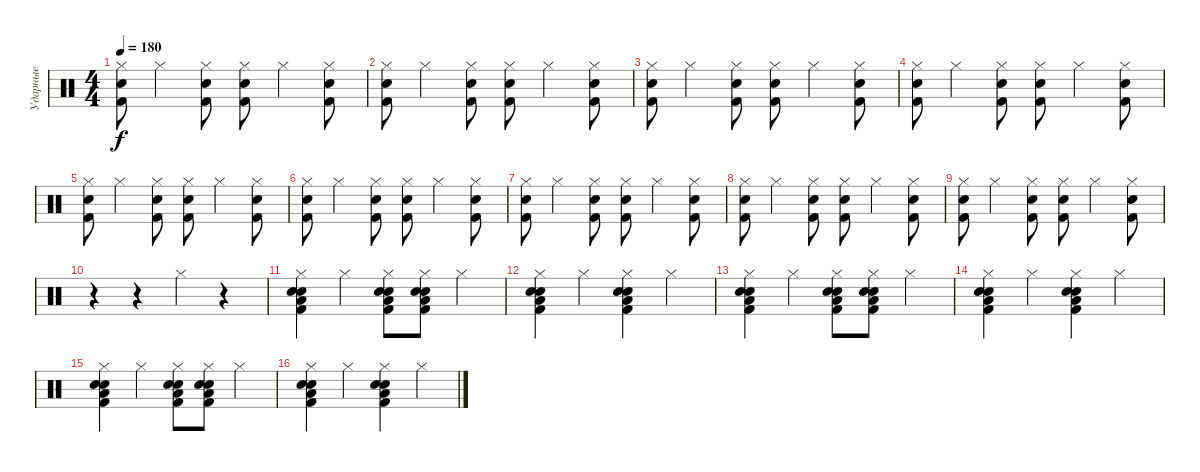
\track ("Ударные" "Ударные") {instrument percussion}
\staff {score}
\articulation defaults
\ts (4 4)
\tempo 180
\clef neutral
\ks c
("Hi-Hat (closed)" "Electric Snare (hit)" "Kick (hit) 2").8{dy f} "Hi-Hat (closed)".4 ("Hi-Hat (closed)" "Electric Snare (hit)" "Kick (hit) 2").8 ("Hi-Hat (closed)" "Electric Snare (hit)" "Kick (hit) 2").8 "Hi-Hat (closed)".4 ("Hi-Hat (closed)" "Electric Snare (hit)" "Kick (hit) 2").8 |
("Hi-Hat (closed)" "Electric Snare (hit)" "Kick (hit) 2").8 "Hi-Hat (closed)".4 ("Hi-Hat (closed)" "Electric Snare (hit)" "Kick (hit) 2").8 ("Hi-Hat (closed)" "Electric Snare (hit)" "Kick (hit) 2").8 "Hi-Hat (closed)".4 ("Hi-Hat (closed)" "Electric Snare (hit)" "Kick (hit) 2").8 |
("Hi-Hat (closed)" "Electric Snare (hit)" "Kick (hit) 2").8 "Hi-Hat (closed)".4 ("Hi-Hat (closed)" "Electric Snare (hit)" "Kick (hit) 2").8 ("Hi-Hat (closed)" "Electric Snare (hit)" "Kick (hit) 2").8 "Hi-Hat (closed)".4 ("Hi-Hat (closed)" "Electric Snare (hit)" "Kick (hit) 2").8 |
("Hi-Hat (closed)" "Electric Snare (hit)" "Kick (hit) 2").8 "Hi-Hat (closed)".4 ("Hi-Hat (closed)" "Electric Snare (hit)" "Kick (hit) 2").8 ("Hi-Hat (closed)" "Electric Snare (hit)" "Kick (hit) 2").8 "Hi-Hat (closed)".4 ("Hi-Hat (closed)" "Electric Snare (hit)" "Kick (hit) 2").8 |
("Hi-Hat (closed)" "Electric Snare (hit)" "Kick (hit) 2").8 "Hi-Hat (closed)".4 ("Hi-Hat (closed)" "Electric Snare (hit)" "Kick (hit) 2").8 ("Hi-Hat (closed)" "Electric Snare (hit)" "Kick (hit) 2").8 "Hi-Hat (closed)".4 ("Hi-Hat (closed)" "Electric Snare (hit)" "Kick (hit) 2").8 |
("Hi-Hat (closed)" "Electric Snare (hit)" "Kick (hit) 2").8 "Hi-Hat (closed)".4 ("Hi-Hat (closed)" "Electric Snare (hit)" "Kick (hit) 2").8 ("Hi-Hat (closed)" "Electric Snare (hit)" "Kick (hit) 2").8 "Hi-Hat (closed)".4 ("Hi-Hat (closed)" "Electric Snare (hit)" "Kick (hit) 2").8 |
("Hi-Hat (closed)" "Electric Snare (hit)" "Kick (hit) 2").8 "Hi-Hat (closed)".4 ("Hi-Hat (closed)" "Electric Snare (hit)" "Kick (hit) 2").8 ("Hi-Hat (closed)" "Electric Snare (hit)" "Kick (hit) 2").8 "Hi-Hat (closed)".4 ("Hi-Hat (closed)" "Electric Snare (hit)" "Kick (hit) 2").8 |
("Hi-Hat (closed)" "Electric Snare (hit)" "Kick (hit) 2").8 "Hi-Hat (closed)".4 ("Hi-Hat (closed)" "Electric Snare (hit)" "Kick (hit) 2").8 ("Hi-Hat (closed)" "Electric Snare (hit)" "Kick (hit) 2").8 "Hi-Hat (closed)".4 ("Hi-Hat (closed)" "Electric Snare (hit)" "Kick (hit) 2").8 |
("Hi-Hat (closed)" "Electric Snare (hit)" "Kick (hit) 2").8 "Hi-Hat (closed)".4 ("Hi-Hat (closed)" "Electric Snare (hit)" "Kick (hit) 2").8 ("Hi-Hat (closed)" "Electric Snare (hit)" "Kick (hit) 2").8 "Hi-Hat (closed)".4 ("Hi-Hat (closed)" "Electric Snare (hit)" "Kick (hit) 2").8 |
r.4 r.4 "Hi-Hat (closed)".4 r.4 |
("Hi-Hat (closed)" "Kick (hit) 2" "Snare (hit) 2" "Electric Snare (hit)" "Low Floor Tom (hit)").4 "Hi-Hat (closed)".4 ("Hi-Hat (closed)" "Kick (hit) 2" "Snare (hit) 2" "Electric Snare (hit)" "Low Floor Tom (hit)").8 ("Hi-Hat (closed)" "Kick (hit) 2" "Snare (hit) 2" "Electric Snare (hit)" "Low Floor Tom (hit)").8 "Hi-Hat (closed)".4 |
("Hi-Hat (closed)" "Kick (hit) 2" "Snare (hit) 2" "Electric Snare (hit)" "Low Floor Tom (hit)").4 "Hi-Hat (closed)".4 ("Hi-Hat (closed)" "Kick (hit) 2" "Snare (hit) 2" "Electric Snare (hit)" "Low Floor Tom (hit)").4 "Hi-Hat (closed)".4 |
("Hi-Hat (closed)" "Kick (hit) 2" "Snare (hit) 2" "Electric Snare (hit)" "Low Floor Tom (hit)").4 "Hi-Hat (closed)".4 ("Hi-Hat (closed)" "Kick (hit) 2" "Snare (hit) 2" "Electric Snare (hit)" "Low Floor Tom (hit)").8 ("Hi-Hat (closed)" "Kick (hit) 2" "Snare (hit) 2" "Electric Snare (hit)" "Low Floor Tom (hit)").8 "Hi-Hat (closed)".4 |
("Hi-Hat (closed)" "Kick (hit) 2" "Snare (hit) 2" "Electric Snare (hit)" "Low Floor Tom (hit)").4 "Hi-Hat (closed)".4 ("Hi-Hat (closed)" "Kick (hit) 2" "Snare (hit) 2" "Electric Snare (hit)" "Low Floor Tom (hit)").4 "Hi-Hat (closed)".4 |
("Hi-Hat (closed)" "Kick (hit) 2" "Snare (hit) 2" "Electric Snare (hit)" "Low Floor Tom (hit)").4 "Hi-Hat (closed)".4 ("Hi-Hat (closed)" "Kick (hit) 2" "Snare (hit) 2" "Electric Snare (hit)" "Low Floor Tom (hit)").8 ("Hi-Hat (closed)" "Kick (hit) 2" "Snare (hit) 2" "Electric Snare (hit)" "Low Floor Tom (hit)").8 "Hi-Hat (closed)".4 |
("Hi-Hat (closed)" "Kick (hit) 2" "Snare (hit) 2" "Electric Snare (hit)" "Low Floor Tom (hit)").4 "Hi-Hat (closed)".4 ("Hi-Hat (closed)" "Kick (hit) 2" "Snare (hit) 2" "Electric Snare (hit)" "Low Floor Tom (hit)").4 "Hi-Hat (closed)".4
